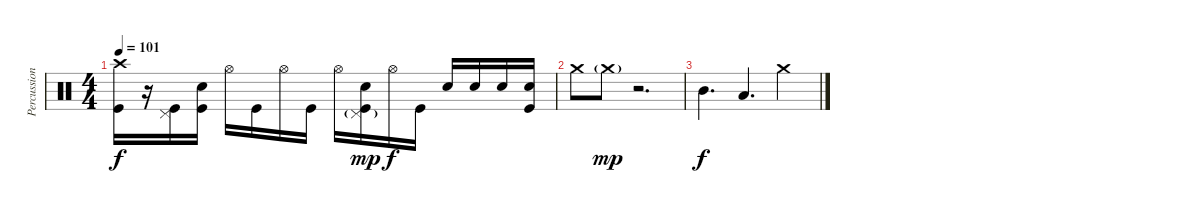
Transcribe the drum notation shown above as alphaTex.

\track ("Percussion" "Percussion") {instrument percussion}
\staff {score}
\articulation defaults
\ts (4 4)
\tempo 101
\clef neutral
\ks c
("Crash high (hit)" "Kick (hit)").16{dy f} r.16 ("Kick (hit)" "Pedal Hi-Hat (hit)").16 ("Snare (hit) 2" "Kick (hit)").16 "Hi-Hat (open)".16 "Kick (hit)".16 "Hi-Hat (open)".16 "Kick (hit)".16 "Hi-Hat (open)".16 ("Snare (hit) 2" "Kick (hit)" "Pedal Hi-Hat (hit)"{g}).16{dy mp} "Hi-Hat (open)".16{dy f} "Kick (hit)".16 "Snare (hit) 2".16 "Snare (hit) 2".16 "Snare (hit) 2".16 ("Snare (hit) 2" "Kick (hit)").16 |
"Crash medium (hit)".8 "Crash medium (hit)"{g}.8{dy mp} r.2{d} |
"Mid Tom (hit)".4{d dy f} "Low Tom (hit)".4{d} "Crash medium (hit)".4
